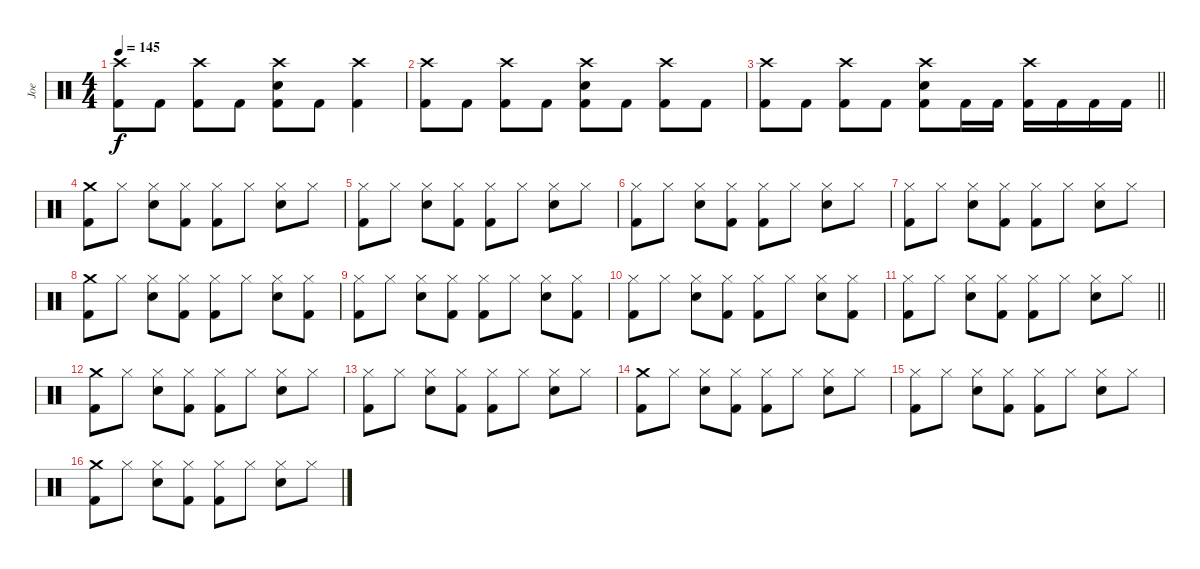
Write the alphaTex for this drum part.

\track ("Joe" "Joe") {instrument percussion}
\staff {score}
\articulation defaults
\ts (4 4)
\tempo 145
\clef neutral
\ks c
("Crash high (hit)" "Kick (hit) 2").8{dy f} "Kick (hit) 2".8 ("Crash high (hit)" "Kick (hit) 2").8 "Kick (hit) 2".8 ("Crash high (hit)" "Snare (hit) 2" "Kick (hit) 2").8 "Kick (hit) 2".8 ("Crash high (hit)" "Kick (hit) 2").4 |
("Crash high (hit)" "Kick (hit) 2").8 "Kick (hit) 2".8 ("Crash high (hit)" "Kick (hit) 2").8 "Kick (hit) 2".8 ("Crash high (hit)" "Snare (hit) 2" "Kick (hit) 2").8 "Kick (hit) 2".8 ("Crash high (hit)" "Kick (hit) 2").8 "Kick (hit) 2".8 |
\barLineRight lightlight
("Crash high (hit)" "Kick (hit) 2").8 "Kick (hit) 2".8 ("Crash high (hit)" "Kick (hit) 2").8 "Kick (hit) 2".8 ("Crash high (hit)" "Snare (hit) 2" "Kick (hit) 2").8 "Kick (hit) 2".16 "Kick (hit) 2".16 ("Crash high (hit)" "Kick (hit) 2").16 "Kick (hit) 2".16 "Kick (hit) 2".16 "Kick (hit) 2".16 |
\section ("" "")
("Crash medium (hit)" "Kick (hit) 2").8 "Hi-Hat (closed)".8 ("Hi-Hat (closed)" "Snare (hit) 2").8 ("Hi-Hat (closed)" "Kick (hit) 2").8 ("Hi-Hat (closed)" "Kick (hit) 2").8 "Hi-Hat (closed)".8 ("Hi-Hat (closed)" "Snare (hit) 2").8 "Hi-Hat (closed)".8 |
("Hi-Hat (closed)" "Kick (hit) 2").8 "Hi-Hat (closed)".8 ("Hi-Hat (closed)" "Snare (hit) 2").8 ("Hi-Hat (closed)" "Kick (hit) 2").8 ("Hi-Hat (closed)" "Kick (hit) 2").8 "Hi-Hat (closed)".8 ("Hi-Hat (closed)" "Snare (hit) 2").8 "Hi-Hat (closed)".8 |
("Hi-Hat (closed)" "Kick (hit) 2").8 "Hi-Hat (closed)".8 ("Hi-Hat (closed)" "Snare (hit) 2").8 ("Hi-Hat (closed)" "Kick (hit) 2").8 ("Hi-Hat (closed)" "Kick (hit) 2").8 "Hi-Hat (closed)".8 ("Hi-Hat (closed)" "Snare (hit) 2").8 "Hi-Hat (closed)".8 |
("Hi-Hat (closed)" "Kick (hit) 2").8 "Hi-Hat (closed)".8 ("Hi-Hat (closed)" "Snare (hit) 2").8 ("Hi-Hat (closed)" "Kick (hit) 2").8 ("Hi-Hat (closed)" "Kick (hit) 2").8 "Hi-Hat (closed)".8 ("Hi-Hat (closed)" "Snare (hit) 2").8 "Hi-Hat (closed)".8 |
("Crash medium (hit)" "Kick (hit) 2").8 "Hi-Hat (closed)".8 ("Hi-Hat (closed)" "Snare (hit) 2").8 ("Hi-Hat (closed)" "Kick (hit) 2").8 ("Hi-Hat (closed)" "Kick (hit) 2").8 "Hi-Hat (closed)".8 ("Hi-Hat (closed)" "Snare (hit) 2").8 ("Hi-Hat (closed)" "Kick (hit) 2").8 |
("Hi-Hat (closed)" "Kick (hit) 2").8 "Hi-Hat (closed)".8 ("Hi-Hat (closed)" "Snare (hit) 2").8 ("Hi-Hat (closed)" "Kick (hit) 2").8 ("Hi-Hat (closed)" "Kick (hit) 2").8 "Hi-Hat (closed)".8 ("Hi-Hat (closed)" "Snare (hit) 2").8 ("Hi-Hat (closed)" "Kick (hit) 2").8 |
("Hi-Hat (closed)" "Kick (hit) 2").8 "Hi-Hat (closed)".8 ("Hi-Hat (closed)" "Snare (hit) 2").8 ("Hi-Hat (closed)" "Kick (hit) 2").8 ("Hi-Hat (closed)" "Kick (hit) 2").8 "Hi-Hat (closed)".8 ("Hi-Hat (closed)" "Snare (hit) 2").8 ("Hi-Hat (closed)" "Kick (hit) 2").8 |
\barLineRight lightlight
("Hi-Hat (closed)" "Kick (hit) 2").8 "Hi-Hat (closed)".8 ("Hi-Hat (closed)" "Snare (hit) 2").8 ("Hi-Hat (closed)" "Kick (hit) 2").8 ("Hi-Hat (closed)" "Kick (hit) 2").8 "Hi-Hat (closed)".8 ("Hi-Hat (closed)" "Snare (hit) 2").8 "Hi-Hat (closed)".8 |
\section ("" "")
("Crash medium (hit)" "Kick (hit) 2").8 "Hi-Hat (closed)".8 ("Hi-Hat (closed)" "Snare (hit) 2").8 ("Hi-Hat (closed)" "Kick (hit) 2").8 ("Hi-Hat (closed)" "Kick (hit) 2").8 "Hi-Hat (closed)".8 ("Hi-Hat (closed)" "Snare (hit) 2").8 "Hi-Hat (closed)".8 |
("Hi-Hat (closed)" "Kick (hit) 2").8 "Hi-Hat (closed)".8 ("Hi-Hat (closed)" "Snare (hit) 2").8 ("Hi-Hat (closed)" "Kick (hit) 2").8 ("Hi-Hat (closed)" "Kick (hit) 2").8 "Hi-Hat (closed)".8 ("Hi-Hat (closed)" "Snare (hit) 2").8 "Hi-Hat (closed)".8 |
("Crash medium (hit)" "Kick (hit) 2").8 "Hi-Hat (closed)".8 ("Hi-Hat (closed)" "Snare (hit) 2").8 ("Hi-Hat (closed)" "Kick (hit) 2").8 ("Hi-Hat (closed)" "Kick (hit) 2").8 "Hi-Hat (closed)".8 ("Hi-Hat (closed)" "Snare (hit) 2").8 "Hi-Hat (closed)".8 |
("Hi-Hat (closed)" "Kick (hit) 2").8 "Hi-Hat (closed)".8 ("Hi-Hat (closed)" "Snare (hit) 2").8 ("Hi-Hat (closed)" "Kick (hit) 2").8 ("Hi-Hat (closed)" "Kick (hit) 2").8 "Hi-Hat (closed)".8 ("Hi-Hat (closed)" "Snare (hit) 2").8 "Hi-Hat (closed)".8 |
("Crash medium (hit)" "Kick (hit) 2").8 "Hi-Hat (closed)".8 ("Hi-Hat (closed)" "Snare (hit) 2").8 ("Hi-Hat (closed)" "Kick (hit) 2").8 ("Hi-Hat (closed)" "Kick (hit) 2").8 "Hi-Hat (closed)".8 ("Hi-Hat (closed)" "Snare (hit) 2").8 "Hi-Hat (closed)".8
